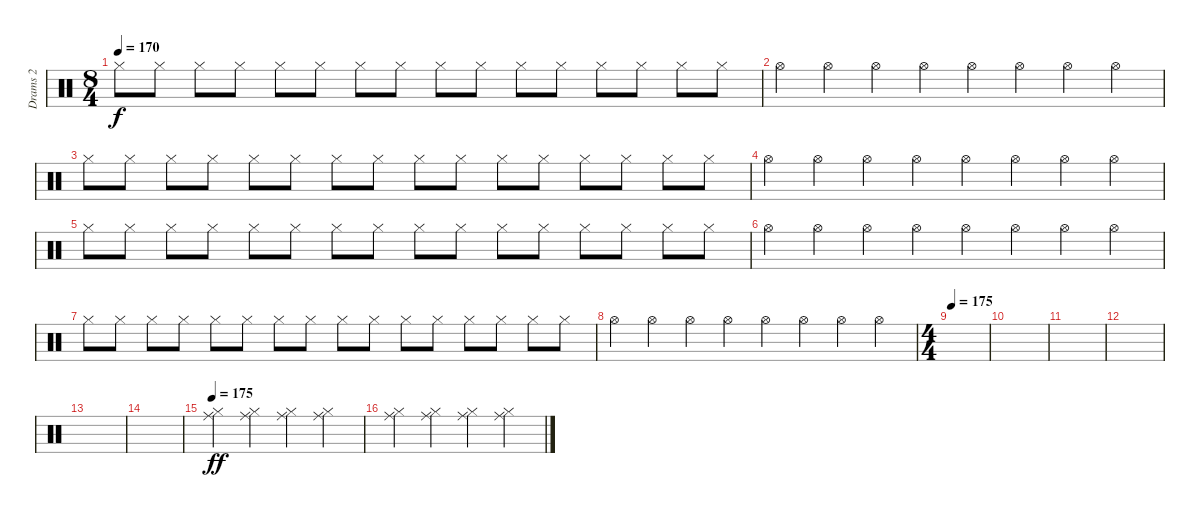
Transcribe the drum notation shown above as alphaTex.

\track ("Drams 2" "Drams 2") {instrument percussion}
\staff {score}
\articulation defaults
\ts (8 4)
\tempo 170
\clef neutral
\ks c "Hi-Hat (closed)".8{dy f} "Hi-Hat (closed)".8 "Hi-Hat (closed)".8 "Hi-Hat (closed)".8 "Hi-Hat (closed)".8 "Hi-Hat (closed)".8 "Hi-Hat (closed)".8 "Hi-Hat (closed)".8 "Hi-Hat (closed)".8 "Hi-Hat (closed)".8 "Hi-Hat (closed)".8 "Hi-Hat (closed)".8 "Hi-Hat (closed)".8 "Hi-Hat (closed)".8 "Hi-Hat (closed)".8 "Hi-Hat (closed)".8
|
"Hi-Hat (open)".4 "Hi-Hat (open)".4 "Hi-Hat (open)".4 "Hi-Hat (open)".4 "Hi-Hat (open)".4 "Hi-Hat (open)".4 "Hi-Hat (open)".4 "Hi-Hat (open)".4 |
"Hi-Hat (closed)".8 "Hi-Hat (closed)".8 "Hi-Hat (closed)".8 "Hi-Hat (closed)".8 "Hi-Hat (closed)".8 "Hi-Hat (closed)".8 "Hi-Hat (closed)".8 "Hi-Hat (closed)".8 "Hi-Hat (closed)".8 "Hi-Hat (closed)".8 "Hi-Hat (closed)".8 "Hi-Hat (closed)".8 "Hi-Hat (closed)".8 "Hi-Hat (closed)".8 "Hi-Hat (closed)".8 "Hi-Hat (closed)".8 |
"Hi-Hat (open)".4 "Hi-Hat (open)".4 "Hi-Hat (open)".4 "Hi-Hat (open)".4 "Hi-Hat (open)".4 "Hi-Hat (open)".4 "Hi-Hat (open)".4 "Hi-Hat (open)".4 |
"Hi-Hat (closed)".8 "Hi-Hat (closed)".8 "Hi-Hat (closed)".8 "Hi-Hat (closed)".8 "Hi-Hat (closed)".8 "Hi-Hat (closed)".8 "Hi-Hat (closed)".8 "Hi-Hat (closed)".8 "Hi-Hat (closed)".8 "Hi-Hat (closed)".8 "Hi-Hat (closed)".8 "Hi-Hat (closed)".8 "Hi-Hat (closed)".8 "Hi-Hat (closed)".8 "Hi-Hat (closed)".8 "Hi-Hat (closed)".8 |
"Hi-Hat (open)".4 "Hi-Hat (open)".4 "Hi-Hat (open)".4 "Hi-Hat (open)".4 "Hi-Hat (open)".4 "Hi-Hat (open)".4 "Hi-Hat (open)".4 "Hi-Hat (open)".4 |
"Hi-Hat (closed)".8 "Hi-Hat (closed)".8 "Hi-Hat (closed)".8 "Hi-Hat (closed)".8 "Hi-Hat (closed)".8 "Hi-Hat (closed)".8 "Hi-Hat (closed)".8 "Hi-Hat (closed)".8 "Hi-Hat (closed)".8 "Hi-Hat (closed)".8 "Hi-Hat (closed)".8 "Hi-Hat (closed)".8 "Hi-Hat (closed)".8 "Hi-Hat (closed)".8 "Hi-Hat (closed)".8 "Hi-Hat (closed)".8 |
"Hi-Hat (open)".4 "Hi-Hat (open)".4 "Hi-Hat (open)".4 "Hi-Hat (open)".4 "Hi-Hat (open)".4 "Hi-Hat (open)".4 "Hi-Hat (open)".4 "Hi-Hat (open)".4 |
\ts (4 4)
\tempo 175
|
|
|
|
|
|
\tempo 175
("Ride (middle)" "Hi-Hat (closed)").4{dy ff} ("Ride (middle)" "Hi-Hat (closed)").4 ("Ride (middle)" "Hi-Hat (closed)").4 ("Ride (middle)" "Hi-Hat (closed)").4 |
("Ride (middle)" "Hi-Hat (closed)").4 ("Ride (middle)" "Hi-Hat (closed)").4 ("Ride (middle)" "Hi-Hat (closed)").4 ("Ride (middle)" "Hi-Hat (closed)").4
